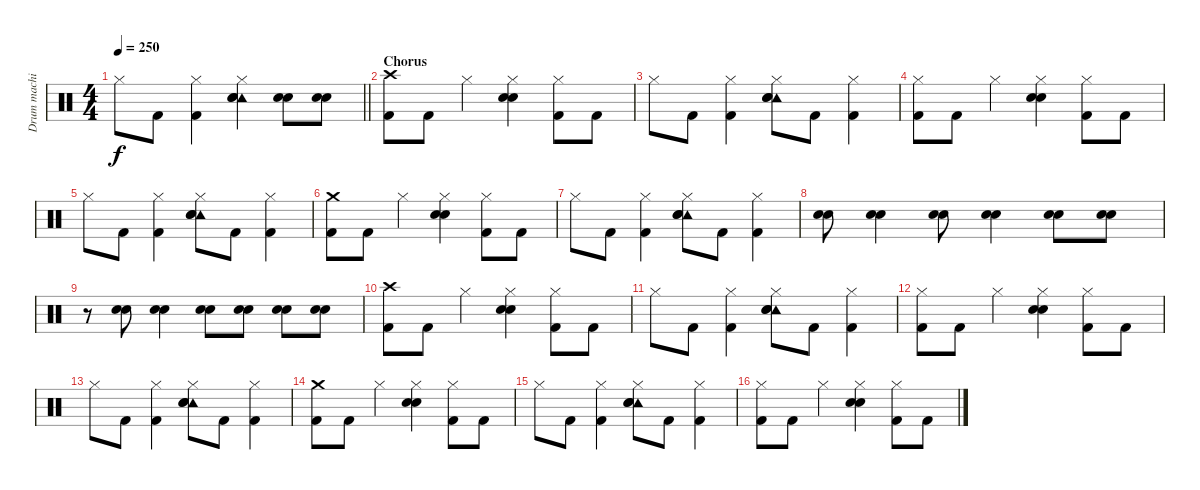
\track ("Drum machine" "Drum machi") {instrument percussion}
\staff {score}
\articulation defaults
\ts (4 4)
\tempo 250
\clef neutral
\barLineRight lightlight
\ks c "Hi-Hat (closed)".8{dy f} "Kick (hit) 2".8
("Hi-Hat (closed)" "Kick (hit) 2").4 ("Tambourine (hit)" "Hi-Hat (closed)" "Electric Snare (hit)" "Snare (hit) 2").4 ("Electric Snare (hit)" "Snare (hit) 2").8 ("Electric Snare (hit)" "Snare (hit) 2").8 |
\section ("" "Chorus")
("Crash high (hit)" "Kick (hit) 2").8 "Kick (hit) 2".8 "Hi-Hat (closed)".4 ("Hi-Hat (closed)" "Electric Snare (hit)" "Snare (hit) 2").4 ("Hi-Hat (closed)" "Kick (hit) 2").8 "Kick (hit) 2".8 |
"Hi-Hat (closed)".8 "Kick (hit) 2".8 ("Hi-Hat (closed)" "Kick (hit) 2").4 ("Tambourine (hit)" "Hi-Hat (closed)" "Electric Snare (hit)" "Snare (hit) 2").8 "Kick (hit) 2".8 ("Hi-Hat (closed)" "Kick (hit) 2").4 |
("Hi-Hat (closed)" "Kick (hit) 2").8 "Kick (hit) 2".8 "Hi-Hat (closed)".4 ("Hi-Hat (closed)" "Electric Snare (hit)" "Snare (hit) 2").4 ("Hi-Hat (closed)" "Kick (hit) 2").8 "Kick (hit) 2".8 |
"Hi-Hat (closed)".8 "Kick (hit) 2".8 ("Hi-Hat (closed)" "Kick (hit) 2").4 ("Tambourine (hit)" "Hi-Hat (closed)" "Electric Snare (hit)" "Snare (hit) 2").8 "Kick (hit) 2".8 ("Hi-Hat (closed)" "Kick (hit) 2").4 |
("Crash medium (hit)" "Kick (hit) 2").8 "Kick (hit) 2".8 "Hi-Hat (closed)".4 ("Hi-Hat (closed)" "Electric Snare (hit)" "Snare (hit) 2").4 ("Hi-Hat (closed)" "Kick (hit) 2").8 "Kick (hit) 2".8 |
"Hi-Hat (closed)".8 "Kick (hit) 2".8 ("Hi-Hat (closed)" "Kick (hit) 2").4 ("Tambourine (hit)" "Hi-Hat (closed)" "Electric Snare (hit)" "Snare (hit) 2").8 "Kick (hit) 2".8 ("Hi-Hat (closed)" "Kick (hit) 2").4 |
("Electric Snare (hit)" "Snare (hit) 2").8 ("Electric Snare (hit)" "Snare (hit) 2").4 ("Electric Snare (hit)" "Snare (hit) 2").8 ("Electric Snare (hit)" "Snare (hit) 2").4 ("Electric Snare (hit)" "Snare (hit) 2").8 ("Electric Snare (hit)" "Snare (hit) 2").8 |
r.8 ("Electric Snare (hit)" "Snare (hit) 2").8 ("Electric Snare (hit)" "Snare (hit) 2").4 ("Electric Snare (hit)" "Snare (hit) 2").8 ("Electric Snare (hit)" "Snare (hit) 2").8 ("Electric Snare (hit)" "Snare (hit) 2").8 ("Electric Snare (hit)" "Snare (hit) 2").8 |
("Crash high (hit)" "Kick (hit) 2").8 "Kick (hit) 2".8 "Hi-Hat (closed)".4 ("Hi-Hat (closed)" "Electric Snare (hit)" "Snare (hit) 2").4 ("Hi-Hat (closed)" "Kick (hit) 2").8 "Kick (hit) 2".8 |
"Hi-Hat (closed)".8 "Kick (hit) 2".8 ("Hi-Hat (closed)" "Kick (hit) 2").4 ("Tambourine (hit)" "Hi-Hat (closed)" "Electric Snare (hit)" "Snare (hit) 2").8 "Kick (hit) 2".8 ("Hi-Hat (closed)" "Kick (hit) 2").4 |
("Hi-Hat (closed)" "Kick (hit) 2").8 "Kick (hit) 2".8 "Hi-Hat (closed)".4 ("Hi-Hat (closed)" "Electric Snare (hit)" "Snare (hit) 2").4 ("Hi-Hat (closed)" "Kick (hit) 2").8 "Kick (hit) 2".8 |
"Hi-Hat (closed)".8 "Kick (hit) 2".8 ("Hi-Hat (closed)" "Kick (hit) 2").4 ("Tambourine (hit)" "Hi-Hat (closed)" "Electric Snare (hit)" "Snare (hit) 2").8 "Kick (hit) 2".8 ("Hi-Hat (closed)" "Kick (hit) 2").4 |
("Crash medium (hit)" "Kick (hit) 2").8 "Kick (hit) 2".8 "Hi-Hat (closed)".4 ("Hi-Hat (closed)" "Electric Snare (hit)" "Snare (hit) 2").4 ("Hi-Hat (closed)" "Kick (hit) 2").8 "Kick (hit) 2".8 |
"Hi-Hat (closed)".8 "Kick (hit) 2".8 ("Hi-Hat (closed)" "Kick (hit) 2").4 ("Tambourine (hit)" "Hi-Hat (closed)" "Electric Snare (hit)" "Snare (hit) 2").8 "Kick (hit) 2".8 ("Hi-Hat (closed)" "Kick (hit) 2").4 |
("Hi-Hat (closed)" "Kick (hit) 2").8 "Kick (hit) 2".8 "Hi-Hat (closed)".4 ("Hi-Hat (closed)" "Electric Snare (hit)" "Snare (hit) 2").4 ("Hi-Hat (closed)" "Kick (hit) 2").8 "Kick (hit) 2".8
